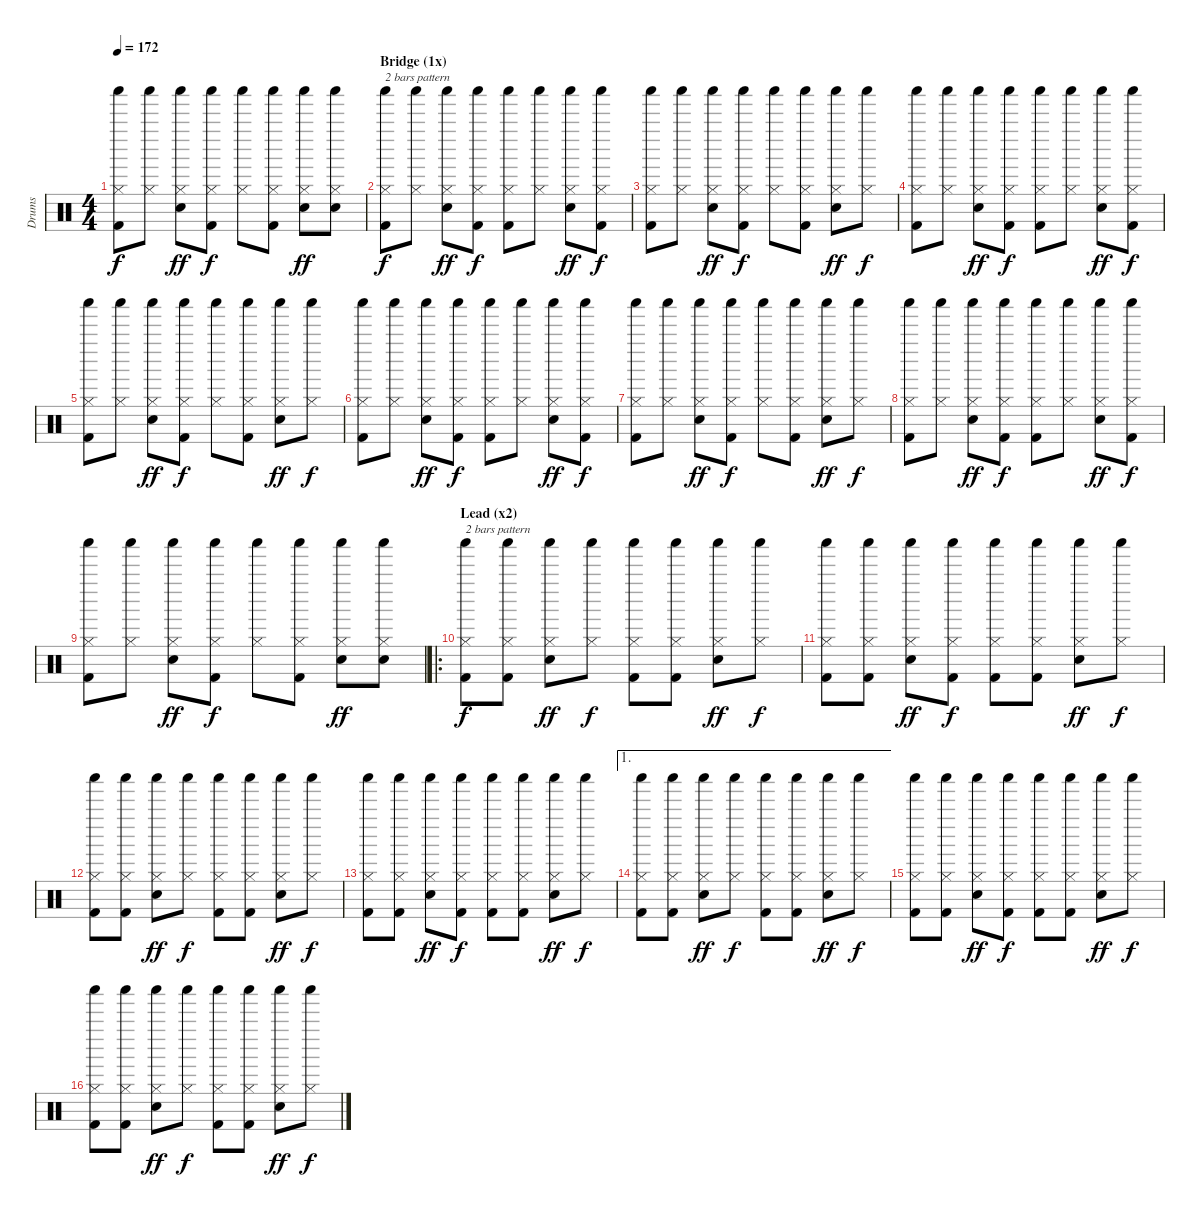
\track ("Drums" "Drums") {instrument percussion}
\staff {score}
\articulation defaults
\ts (4 4)
\tempo 172
\clef neutral
\ks c
("Hi-Hat (closed)" "Shaker (hit)" "Kick (hit) 2").8{dy f} ("Hi-Hat (closed)" "Shaker (hit)").8 ("Hi-Hat (closed)" "Shaker (hit)" "Electric Snare (hit)").8{dy ff} ("Hi-Hat (closed)" "Shaker (hit)" "Kick (hit) 2").8{dy f} ("Hi-Hat (closed)" "Shaker (hit)").8 ("Hi-Hat (closed)" "Shaker (hit)" "Kick (hit) 2").8 ("Hi-Hat (closed)" "Shaker (hit)" "Electric Snare (hit)").8{dy ff} ("Hi-Hat (closed)" "Shaker (hit)" "Electric Snare (hit)").8 |
\section ("" "Bridge (1x)")
("Hi-Hat (closed)" "Shaker (hit)" "Kick (hit) 2").8{txt "2 bars pattern" dy f} ("Hi-Hat (closed)" "Shaker (hit)").8 ("Hi-Hat (closed)" "Shaker (hit)" "Electric Snare (hit)").8{dy ff} ("Hi-Hat (closed)" "Shaker (hit)" "Kick (hit) 2").8{dy f} ("Hi-Hat (closed)" "Shaker (hit)" "Kick (hit) 2").8 ("Hi-Hat (closed)" "Shaker (hit)").8 ("Hi-Hat (closed)" "Shaker (hit)" "Electric Snare (hit)").8{dy ff} ("Hi-Hat (closed)" "Shaker (hit)" "Kick (hit) 2").8{dy f} |
("Hi-Hat (closed)" "Shaker (hit)" "Kick (hit) 2").8 ("Hi-Hat (closed)" "Shaker (hit)").8 ("Hi-Hat (closed)" "Shaker (hit)" "Electric Snare (hit)").8{dy ff} ("Hi-Hat (closed)" "Shaker (hit)" "Kick (hit) 2").8{dy f} ("Hi-Hat (closed)" "Shaker (hit)").8 ("Hi-Hat (closed)" "Shaker (hit)" "Kick (hit) 2").8 ("Hi-Hat (closed)" "Shaker (hit)" "Electric Snare (hit)").8{dy ff} ("Hi-Hat (closed)" "Shaker (hit)").8{dy f} |
("Hi-Hat (closed)" "Shaker (hit)" "Kick (hit) 2").8 ("Hi-Hat (closed)" "Shaker (hit)").8 ("Hi-Hat (closed)" "Shaker (hit)" "Electric Snare (hit)").8{dy ff} ("Hi-Hat (closed)" "Shaker (hit)" "Kick (hit) 2").8{dy f} ("Hi-Hat (closed)" "Shaker (hit)" "Kick (hit) 2").8 ("Hi-Hat (closed)" "Shaker (hit)").8 ("Hi-Hat (closed)" "Shaker (hit)" "Electric Snare (hit)").8{dy ff} ("Hi-Hat (closed)" "Shaker (hit)" "Kick (hit) 2").8{dy f} |
("Hi-Hat (closed)" "Shaker (hit)" "Kick (hit) 2").8 ("Hi-Hat (closed)" "Shaker (hit)").8 ("Hi-Hat (closed)" "Shaker (hit)" "Electric Snare (hit)").8{dy ff} ("Hi-Hat (closed)" "Shaker (hit)" "Kick (hit) 2").8{dy f} ("Hi-Hat (closed)" "Shaker (hit)").8 ("Hi-Hat (closed)" "Shaker (hit)" "Kick (hit) 2").8 ("Hi-Hat (closed)" "Shaker (hit)" "Electric Snare (hit)").8{dy ff} ("Hi-Hat (closed)" "Shaker (hit)").8{dy f} |
("Hi-Hat (closed)" "Shaker (hit)" "Kick (hit) 2").8 ("Hi-Hat (closed)" "Shaker (hit)").8 ("Hi-Hat (closed)" "Shaker (hit)" "Electric Snare (hit)").8{dy ff} ("Hi-Hat (closed)" "Shaker (hit)" "Kick (hit) 2").8{dy f} ("Hi-Hat (closed)" "Shaker (hit)" "Kick (hit) 2").8 ("Hi-Hat (closed)" "Shaker (hit)").8 ("Hi-Hat (closed)" "Shaker (hit)" "Electric Snare (hit)").8{dy ff} ("Hi-Hat (closed)" "Shaker (hit)" "Kick (hit) 2").8{dy f} |
("Hi-Hat (closed)" "Shaker (hit)" "Kick (hit) 2").8 ("Hi-Hat (closed)" "Shaker (hit)").8 ("Hi-Hat (closed)" "Shaker (hit)" "Electric Snare (hit)").8{dy ff} ("Hi-Hat (closed)" "Shaker (hit)" "Kick (hit) 2").8{dy f} ("Hi-Hat (closed)" "Shaker (hit)").8 ("Hi-Hat (closed)" "Shaker (hit)" "Kick (hit) 2").8 ("Hi-Hat (closed)" "Shaker (hit)" "Electric Snare (hit)").8{dy ff} ("Hi-Hat (closed)" "Shaker (hit)").8{dy f} |
("Hi-Hat (closed)" "Shaker (hit)" "Kick (hit) 2").8 ("Hi-Hat (closed)" "Shaker (hit)").8 ("Hi-Hat (closed)" "Shaker (hit)" "Electric Snare (hit)").8{dy ff} ("Hi-Hat (closed)" "Shaker (hit)" "Kick (hit) 2").8{dy f} ("Hi-Hat (closed)" "Shaker (hit)" "Kick (hit) 2").8 ("Hi-Hat (closed)" "Shaker (hit)").8 ("Hi-Hat (closed)" "Shaker (hit)" "Electric Snare (hit)").8{dy ff} ("Hi-Hat (closed)" "Shaker (hit)" "Kick (hit) 2").8{dy f} |
("Hi-Hat (closed)" "Shaker (hit)" "Kick (hit) 2").8 ("Hi-Hat (closed)" "Shaker (hit)").8 ("Hi-Hat (closed)" "Shaker (hit)" "Electric Snare (hit)").8{dy ff} ("Hi-Hat (closed)" "Shaker (hit)" "Kick (hit) 2").8{dy f} ("Hi-Hat (closed)" "Shaker (hit)").8 ("Hi-Hat (closed)" "Shaker (hit)" "Kick (hit) 2").8 ("Hi-Hat (closed)" "Shaker (hit)" "Electric Snare (hit)").8{dy ff} ("Hi-Hat (closed)" "Shaker (hit)" "Electric Snare (hit)").8 |
\ro
\section ("" "Lead (x2)")
("Hi-Hat (closed)" "Shaker (hit)" "Kick (hit) 2").8{txt "2 bars pattern" dy f} ("Hi-Hat (closed)" "Shaker (hit)" "Kick (hit) 2").8 ("Hi-Hat (closed)" "Shaker (hit)" "Electric Snare (hit)").8{dy ff} ("Hi-Hat (closed)" "Shaker (hit)").8{dy f} ("Hi-Hat (closed)" "Shaker (hit)" "Kick (hit) 2").8 ("Hi-Hat (closed)" "Shaker (hit)" "Kick (hit) 2").8 ("Hi-Hat (closed)" "Shaker (hit)" "Electric Snare (hit)").8{dy ff} ("Hi-Hat (closed)" "Shaker (hit)").8{dy f} |
("Hi-Hat (closed)" "Shaker (hit)" "Kick (hit) 2").8 ("Hi-Hat (closed)" "Shaker (hit)" "Kick (hit) 2").8 ("Hi-Hat (closed)" "Shaker (hit)" "Electric Snare (hit)").8{dy ff} ("Hi-Hat (closed)" "Shaker (hit)" "Kick (hit) 2").8{dy f} ("Hi-Hat (closed)" "Shaker (hit)" "Kick (hit) 2").8 ("Hi-Hat (closed)" "Shaker (hit)" "Kick (hit) 2").8 ("Hi-Hat (closed)" "Shaker (hit)" "Electric Snare (hit)").8{dy ff} ("Hi-Hat (closed)" "Shaker (hit)").8{dy f} |
("Hi-Hat (closed)" "Shaker (hit)" "Kick (hit) 2").8 ("Hi-Hat (closed)" "Shaker (hit)" "Kick (hit) 2").8 ("Hi-Hat (closed)" "Shaker (hit)" "Electric Snare (hit)").8{dy ff} ("Hi-Hat (closed)" "Shaker (hit)").8{dy f} ("Hi-Hat (closed)" "Shaker (hit)" "Kick (hit) 2").8 ("Hi-Hat (closed)" "Shaker (hit)" "Kick (hit) 2").8 ("Hi-Hat (closed)" "Shaker (hit)" "Electric Snare (hit)").8{dy ff} ("Hi-Hat (closed)" "Shaker (hit)").8{dy f} |
("Hi-Hat (closed)" "Shaker (hit)" "Kick (hit) 2").8 ("Hi-Hat (closed)" "Shaker (hit)" "Kick (hit) 2").8 ("Hi-Hat (closed)" "Shaker (hit)" "Electric Snare (hit)").8{dy ff} ("Hi-Hat (closed)" "Shaker (hit)" "Kick (hit) 2").8{dy f} ("Hi-Hat (closed)" "Shaker (hit)" "Kick (hit) 2").8 ("Hi-Hat (closed)" "Shaker (hit)" "Kick (hit) 2").8 ("Hi-Hat (closed)" "Shaker (hit)" "Electric Snare (hit)").8{dy ff} ("Hi-Hat (closed)" "Shaker (hit)").8{dy f} |
\ae 1
("Hi-Hat (closed)" "Shaker (hit)" "Kick (hit) 2").8 ("Hi-Hat (closed)" "Shaker (hit)" "Kick (hit) 2").8 ("Hi-Hat (closed)" "Shaker (hit)" "Electric Snare (hit)").8{dy ff} ("Hi-Hat (closed)" "Shaker (hit)").8{dy f} ("Hi-Hat (closed)" "Shaker (hit)" "Kick (hit) 2").8 ("Hi-Hat (closed)" "Shaker (hit)" "Kick (hit) 2").8 ("Hi-Hat (closed)" "Shaker (hit)" "Electric Snare (hit)").8{dy ff} ("Hi-Hat (closed)" "Shaker (hit)").8{dy f} |
("Hi-Hat (closed)" "Shaker (hit)" "Kick (hit) 2").8 ("Hi-Hat (closed)" "Shaker (hit)" "Kick (hit) 2").8 ("Hi-Hat (closed)" "Shaker (hit)" "Electric Snare (hit)").8{dy ff} ("Hi-Hat (closed)" "Shaker (hit)" "Kick (hit) 2").8{dy f} ("Hi-Hat (closed)" "Shaker (hit)" "Kick (hit) 2").8 ("Hi-Hat (closed)" "Shaker (hit)" "Kick (hit) 2").8 ("Hi-Hat (closed)" "Shaker (hit)" "Electric Snare (hit)").8{dy ff} ("Hi-Hat (closed)" "Shaker (hit)").8{dy f} |
("Hi-Hat (closed)" "Shaker (hit)" "Kick (hit) 2").8 ("Hi-Hat (closed)" "Shaker (hit)" "Kick (hit) 2").8 ("Hi-Hat (closed)" "Shaker (hit)" "Electric Snare (hit)").8{dy ff} ("Hi-Hat (closed)" "Shaker (hit)").8{dy f} ("Hi-Hat (closed)" "Shaker (hit)" "Kick (hit) 2").8 ("Hi-Hat (closed)" "Shaker (hit)" "Kick (hit) 2").8 ("Hi-Hat (closed)" "Shaker (hit)" "Electric Snare (hit)").8{dy ff} ("Hi-Hat (closed)" "Shaker (hit)").8{dy f}
